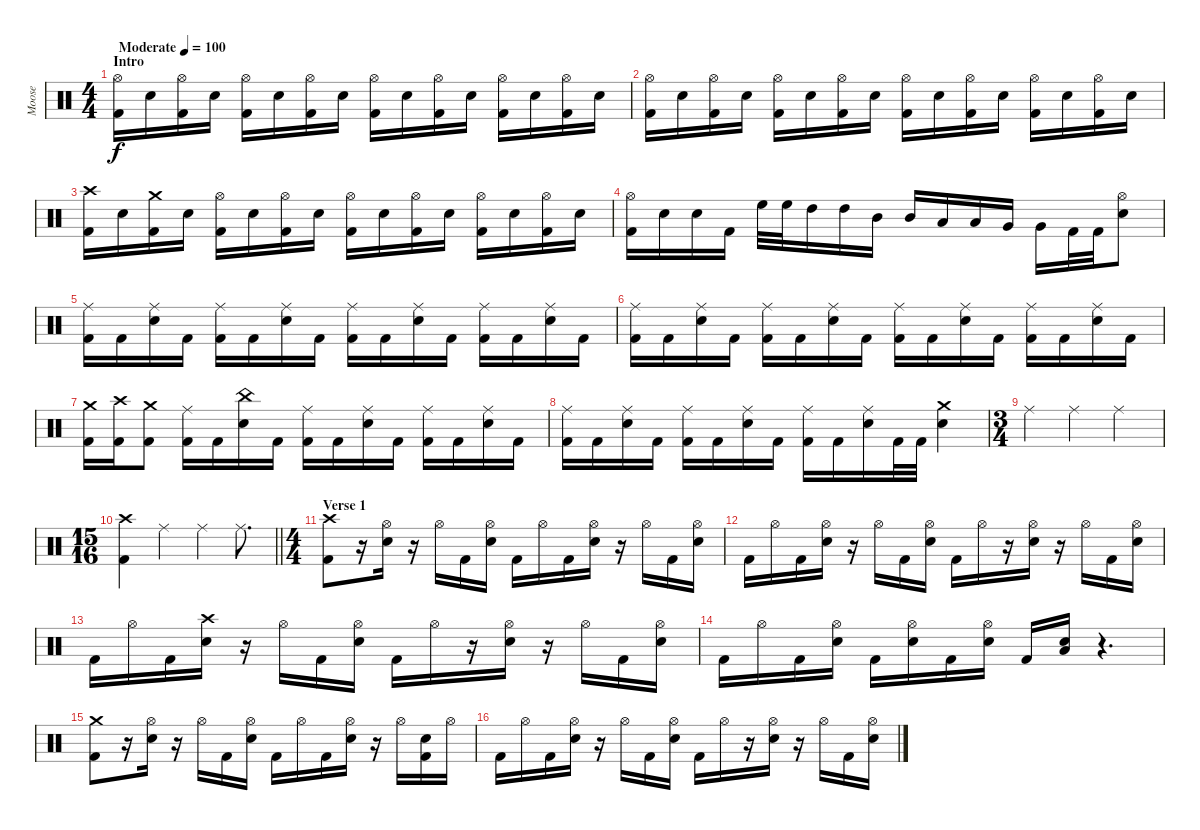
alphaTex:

\track ("Moose" "Moose") {instrument percussion}
\staff {score}
\articulation defaults
\ts (4 4)
\section ("" "Intro")
\tempo (100 "Moderate")
\clef neutral
\ks c
("Hi-Hat (open)" "Kick (hit) 2").16{dy f} "Electric Snare (hit)".16 ("Hi-Hat (open)" "Kick (hit) 2").16 "Electric Snare (hit)".16 ("Hi-Hat (open)" "Kick (hit) 2").16 "Electric Snare (hit)".16 ("Hi-Hat (open)" "Kick (hit) 2").16 "Electric Snare (hit)".16 ("Hi-Hat (open)" "Kick (hit) 2").16 "Electric Snare (hit)".16 ("Hi-Hat (open)" "Kick (hit) 2").16 "Electric Snare (hit)".16 ("Hi-Hat (open)" "Kick (hit) 2").16 "Electric Snare (hit)".16 ("Hi-Hat (open)" "Kick (hit) 2").16 "Electric Snare (hit)".16 |
("Hi-Hat (open)" "Kick (hit) 2").16 "Electric Snare (hit)".16 ("Hi-Hat (open)" "Kick (hit) 2").16 "Electric Snare (hit)".16 ("Hi-Hat (open)" "Kick (hit) 2").16 "Electric Snare (hit)".16 ("Hi-Hat (open)" "Kick (hit) 2").16 "Electric Snare (hit)".16 ("Hi-Hat (open)" "Kick (hit) 2").16 "Electric Snare (hit)".16 ("Hi-Hat (open)" "Kick (hit) 2").16 "Electric Snare (hit)".16 ("Hi-Hat (open)" "Kick (hit) 2").16 "Electric Snare (hit)".16 ("Hi-Hat (open)" "Kick (hit) 2").16 "Electric Snare (hit)".16 |
("Crash high (hit)" "Kick (hit) 2").16 "Electric Snare (hit)".16 ("Crash medium (hit)" "Kick (hit) 2").16 "Electric Snare (hit)".16 ("Hi-Hat (open)" "Kick (hit) 2").16 "Electric Snare (hit)".16 ("Hi-Hat (open)" "Kick (hit) 2").16 "Electric Snare (hit)".16 ("Hi-Hat (open)" "Kick (hit) 2").16 "Electric Snare (hit)".16 ("Hi-Hat (open)" "Kick (hit) 2").16 "Electric Snare (hit)".16 ("Hi-Hat (open)" "Kick (hit) 2").16 "Electric Snare (hit)".16 ("Hi-Hat (open)" "Kick (hit) 2").16 "Electric Snare (hit)".16 |
("Hi-Hat (open)" "Kick (hit) 2").16 "Electric Snare (hit)".16 "Electric Snare (hit)".16 "Kick (hit) 2".16 "High Floor Tom (hit)".32 "High Floor Tom (hit)".32 "High Tom (hit)".16 "High Tom (hit)".16 "Mid Tom (hit)".16 "Mid Tom (hit)".16 "Low Tom (hit)".16 "Low Tom (hit)".16 "Very Low Tom (hit)".16 "Very Low Tom (hit)".16 "Kick (hit) 2".32 "Kick (hit) 2".32 ("Hi-Hat (open)" "Electric Snare (hit)").8 |
("Ride (middle)" "Kick (hit) 2").16 "Kick (hit) 2".16 ("Ride (middle)" "Electric Snare (hit)").16 "Kick (hit) 2".16 ("Ride (middle)" "Kick (hit) 2").16 "Kick (hit) 2".16 ("Ride (middle)" "Electric Snare (hit)").16 "Kick (hit) 2".16 ("Ride (middle)" "Kick (hit) 2").16 "Kick (hit) 2".16 ("Ride (middle)" "Electric Snare (hit)").16 "Kick (hit) 2".16 ("Ride (middle)" "Kick (hit) 2").16 "Kick (hit) 2".16 ("Ride (middle)" "Electric Snare (hit)").16 "Kick (hit) 2".16 |
("Ride (middle)" "Kick (hit) 2").16 "Kick (hit) 2".16 ("Ride (middle)" "Electric Snare (hit)").16 "Kick (hit) 2".16 ("Ride (middle)" "Kick (hit) 2").16 "Kick (hit) 2".16 ("Ride (middle)" "Electric Snare (hit)").16 "Kick (hit) 2".16 ("Ride (middle)" "Kick (hit) 2").16 "Kick (hit) 2".16 ("Ride (middle)" "Electric Snare (hit)").16 "Kick (hit) 2".16 ("Ride (middle)" "Kick (hit) 2").16 "Kick (hit) 2".16 ("Ride (middle)" "Electric Snare (hit)").16 "Kick (hit) 2".16 |
("Crash medium (hit)" "Kick (hit) 2").16 ("Crash high (hit)" "Kick (hit) 2").16 ("Crash medium (hit)" "Kick (hit) 2").8 ("Ride (middle)" "Kick (hit) 2").16 "Kick (hit) 2".16 ("China (hit)" "Electric Snare (hit)").16 "Kick (hit) 2".16 ("Ride (middle)" "Kick (hit) 2").16 "Kick (hit) 2".16 ("Ride (middle)" "Electric Snare (hit)").16 "Kick (hit) 2".16 ("Ride (middle)" "Kick (hit) 2").16 "Kick (hit) 2".16 ("Ride (middle)" "Electric Snare (hit)").16 "Kick (hit) 2".16 |
("Ride (middle)" "Kick (hit) 2").16 "Kick (hit) 2".16 ("Ride (middle)" "Electric Snare (hit)").16 "Kick (hit) 2".16 ("Ride (middle)" "Kick (hit) 2").16 "Kick (hit) 2".16 ("Ride (middle)" "Electric Snare (hit)").16 "Kick (hit) 2".16 ("Ride (middle)" "Kick (hit) 2").16 "Kick (hit) 2".16 ("Ride (middle)" "Electric Snare (hit)").16 "Kick (hit) 2".32 "Kick (hit) 2".32 ("Crash medium (hit)" "Electric Snare (hit)").4 |
\ts (3 4)
"Ride (middle)".4 "Ride (middle)".4 "Ride (middle)".4 |
\ts (15 16)
\barLineRight lightlight
("Crash high (hit)" "Kick (hit) 2").4 "Ride (middle)".4 "Ride (middle)".4 "Ride (middle)".8{d} |
\ts (4 4)
\section ("" "Verse 1")
("Crash high (hit)" "Kick (hit) 2").8 r.16 ("Hi-Hat (open)" "Electric Snare (hit)").16 r.16 "Hi-Hat (open)".16 "Kick (hit) 2".16 ("Hi-Hat (open)" "Electric Snare (hit)").16 "Kick (hit) 2".16 "Hi-Hat (open)".16 "Kick (hit) 2".16 ("Hi-Hat (open)" "Electric Snare (hit)").16 r.16 "Hi-Hat (open)".16 "Kick (hit) 2".16 ("Hi-Hat (open)" "Electric Snare (hit)").16 |
"Kick (hit) 2".16 "Hi-Hat (open)".16 "Kick (hit) 2".16 ("Hi-Hat (open)" "Electric Snare (hit)").16 r.16 "Hi-Hat (open)".16 "Kick (hit) 2".16 ("Hi-Hat (open)" "Electric Snare (hit)").16 "Kick (hit) 2".16 "Hi-Hat (open)".16 r.16 ("Hi-Hat (open)" "Electric Snare (hit)").16 r.16 "Hi-Hat (open)".16 "Kick (hit) 2".16 ("Hi-Hat (open)" "Electric Snare (hit)").16 |
"Kick (hit) 2".16 "Hi-Hat (open)".16 "Kick (hit) 2".16 ("Crash high (hit)" "Electric Snare (hit)").16 r.16 "Hi-Hat (open)".16 "Kick (hit) 2".16 ("Hi-Hat (open)" "Electric Snare (hit)").16 "Kick (hit) 2".16 "Hi-Hat (open)".16 r.16 ("Hi-Hat (open)" "Electric Snare (hit)").16 r.16 "Hi-Hat (open)".16 "Kick (hit) 2".16 ("Hi-Hat (open)" "Electric Snare (hit)").16 |
"Kick (hit) 2".16 "Hi-Hat (open)".16 "Kick (hit) 2".16 ("Hi-Hat (open)" "Electric Snare (hit)").16 "Kick (hit) 2".16 ("Hi-Hat (open)" "Electric Snare (hit)").16 "Kick (hit) 2".16 ("Hi-Hat (open)" "Electric Snare (hit)").16 "Kick (hit) 2".16 ("Low Tom (hit)" "Electric Snare (hit)").16 r.4{d} |
("Crash medium (hit)" "Kick (hit) 2").8 r.16 ("Hi-Hat (open)" "Electric Snare (hit)").16 r.16 "Hi-Hat (open)".16 "Kick (hit) 2".16 ("Hi-Hat (open)" "Electric Snare (hit)").16 "Kick (hit) 2".16 "Hi-Hat (open)".16 "Kick (hit) 2".16 ("Hi-Hat (open)" "Electric Snare (hit)").16 r.16 "Hi-Hat (open)".16 ("Electric Snare (hit)" "Kick (hit) 2").16 "Hi-Hat (open)".16 |
"Kick (hit) 2".16 "Hi-Hat (open)".16 "Kick (hit) 2".16 ("Hi-Hat (open)" "Electric Snare (hit)").16 r.16 "Hi-Hat (open)".16 "Kick (hit) 2".16 ("Hi-Hat (open)" "Electric Snare (hit)").16 "Kick (hit) 2".16 "Hi-Hat (open)".16 r.16 ("Hi-Hat (open)" "Electric Snare (hit)").16 r.16 "Hi-Hat (open)".16 "Kick (hit) 2".16 ("Hi-Hat (open)" "Electric Snare (hit)").16
